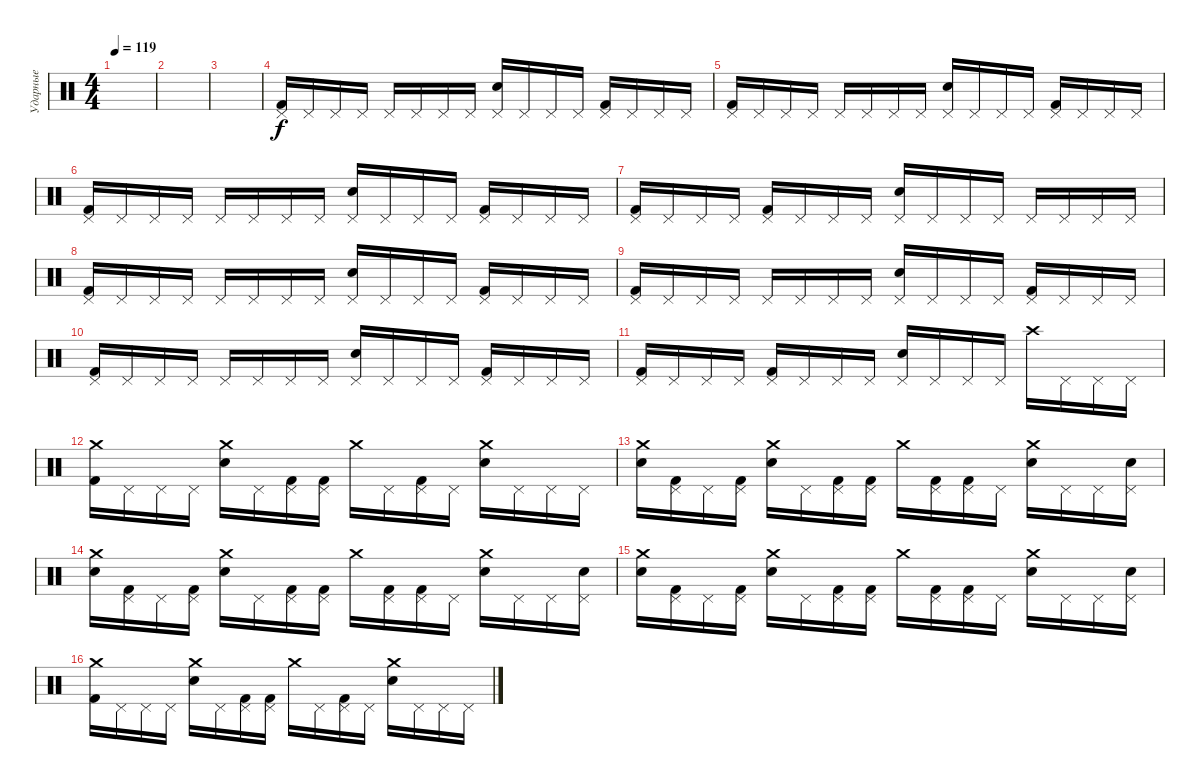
\track ("Ударные" "Ударные") {instrument percussion}
\staff {score}
\articulation defaults
\ts (4 4)
\tempo 119
\clef neutral
\ks c
|
|
|
("Pedal Hi-Hat (hit)" "Kick (hit) 2").16 "Pedal Hi-Hat (hit)".16 "Pedal Hi-Hat (hit)".16 "Pedal Hi-Hat (hit)".16 "Pedal Hi-Hat (hit)".16 "Pedal Hi-Hat (hit)".16 "Pedal Hi-Hat (hit)".16 "Pedal Hi-Hat (hit)".16 ("Pedal Hi-Hat (hit)" "Electric Snare (hit)").16 "Pedal Hi-Hat (hit)".16 "Pedal Hi-Hat (hit)".16 "Pedal Hi-Hat (hit)".16 ("Pedal Hi-Hat (hit)" "Kick (hit) 2").16 "Pedal Hi-Hat (hit)".16 "Pedal Hi-Hat (hit)".16 "Pedal Hi-Hat (hit)".16 |
("Pedal Hi-Hat (hit)" "Kick (hit) 2").16 "Pedal Hi-Hat (hit)".16 "Pedal Hi-Hat (hit)".16 "Pedal Hi-Hat (hit)".16 "Pedal Hi-Hat (hit)".16 "Pedal Hi-Hat (hit)".16 "Pedal Hi-Hat (hit)".16 "Pedal Hi-Hat (hit)".16 ("Pedal Hi-Hat (hit)" "Electric Snare (hit)").16 "Pedal Hi-Hat (hit)".16 "Pedal Hi-Hat (hit)".16 "Pedal Hi-Hat (hit)".16 ("Pedal Hi-Hat (hit)" "Kick (hit) 2").16 "Pedal Hi-Hat (hit)".16 "Pedal Hi-Hat (hit)".16 "Pedal Hi-Hat (hit)".16 |
("Pedal Hi-Hat (hit)" "Kick (hit) 2").16 "Pedal Hi-Hat (hit)".16 "Pedal Hi-Hat (hit)".16 "Pedal Hi-Hat (hit)".16 "Pedal Hi-Hat (hit)".16 "Pedal Hi-Hat (hit)".16 "Pedal Hi-Hat (hit)".16 "Pedal Hi-Hat (hit)".16 ("Pedal Hi-Hat (hit)" "Electric Snare (hit)").16 "Pedal Hi-Hat (hit)".16 "Pedal Hi-Hat (hit)".16 "Pedal Hi-Hat (hit)".16 ("Pedal Hi-Hat (hit)" "Kick (hit) 2").16 "Pedal Hi-Hat (hit)".16 "Pedal Hi-Hat (hit)".16 "Pedal Hi-Hat (hit)".16 |
("Pedal Hi-Hat (hit)" "Kick (hit) 2").16 "Pedal Hi-Hat (hit)".16 "Pedal Hi-Hat (hit)".16 "Pedal Hi-Hat (hit)".16 ("Pedal Hi-Hat (hit)" "Kick (hit) 2").16 "Pedal Hi-Hat (hit)".16 "Pedal Hi-Hat (hit)".16 "Pedal Hi-Hat (hit)".16 ("Pedal Hi-Hat (hit)" "Electric Snare (hit)").16 "Pedal Hi-Hat (hit)".16 "Pedal Hi-Hat (hit)".16 "Pedal Hi-Hat (hit)".16 "Pedal Hi-Hat (hit)".16 "Pedal Hi-Hat (hit)".16 "Pedal Hi-Hat (hit)".16 "Pedal Hi-Hat (hit)".16 |
("Pedal Hi-Hat (hit)" "Kick (hit) 2").16 "Pedal Hi-Hat (hit)".16 "Pedal Hi-Hat (hit)".16 "Pedal Hi-Hat (hit)".16 "Pedal Hi-Hat (hit)".16 "Pedal Hi-Hat (hit)".16 "Pedal Hi-Hat (hit)".16 "Pedal Hi-Hat (hit)".16 ("Pedal Hi-Hat (hit)" "Electric Snare (hit)").16 "Pedal Hi-Hat (hit)".16 "Pedal Hi-Hat (hit)".16 "Pedal Hi-Hat (hit)".16 ("Pedal Hi-Hat (hit)" "Kick (hit) 2").16 "Pedal Hi-Hat (hit)".16 "Pedal Hi-Hat (hit)".16 "Pedal Hi-Hat (hit)".16 |
("Pedal Hi-Hat (hit)" "Kick (hit) 2").16 "Pedal Hi-Hat (hit)".16 "Pedal Hi-Hat (hit)".16 "Pedal Hi-Hat (hit)".16 "Pedal Hi-Hat (hit)".16 "Pedal Hi-Hat (hit)".16 "Pedal Hi-Hat (hit)".16 "Pedal Hi-Hat (hit)".16 ("Pedal Hi-Hat (hit)" "Electric Snare (hit)").16 "Pedal Hi-Hat (hit)".16 "Pedal Hi-Hat (hit)".16 "Pedal Hi-Hat (hit)".16 ("Pedal Hi-Hat (hit)" "Kick (hit) 2").16 "Pedal Hi-Hat (hit)".16 "Pedal Hi-Hat (hit)".16 "Pedal Hi-Hat (hit)".16 |
("Pedal Hi-Hat (hit)" "Kick (hit) 2").16 "Pedal Hi-Hat (hit)".16 "Pedal Hi-Hat (hit)".16 "Pedal Hi-Hat (hit)".16 "Pedal Hi-Hat (hit)".16 "Pedal Hi-Hat (hit)".16 "Pedal Hi-Hat (hit)".16 "Pedal Hi-Hat (hit)".16 ("Pedal Hi-Hat (hit)" "Electric Snare (hit)").16 "Pedal Hi-Hat (hit)".16 "Pedal Hi-Hat (hit)".16 "Pedal Hi-Hat (hit)".16 ("Pedal Hi-Hat (hit)" "Kick (hit) 2").16 "Pedal Hi-Hat (hit)".16 "Pedal Hi-Hat (hit)".16 "Pedal Hi-Hat (hit)".16 |
("Pedal Hi-Hat (hit)" "Kick (hit) 2").16 "Pedal Hi-Hat (hit)".16 "Pedal Hi-Hat (hit)".16 "Pedal Hi-Hat (hit)".16 ("Pedal Hi-Hat (hit)" "Kick (hit) 2").16 "Pedal Hi-Hat (hit)".16 "Pedal Hi-Hat (hit)".16 "Pedal Hi-Hat (hit)".16 ("Pedal Hi-Hat (hit)" "Electric Snare (hit)").16 "Pedal Hi-Hat (hit)".16 "Pedal Hi-Hat (hit)".16 "Pedal Hi-Hat (hit)".16 "Crash high (hit)".16 "Pedal Hi-Hat (hit)".16 "Pedal Hi-Hat (hit)".16 "Pedal Hi-Hat (hit)".16 |
("Crash medium (hit)" "Kick (hit) 2").16 "Pedal Hi-Hat (hit)".16 "Pedal Hi-Hat (hit)".16 "Pedal Hi-Hat (hit)".16 ("Crash medium (hit)" "Electric Snare (hit)").16 "Pedal Hi-Hat (hit)".16 ("Pedal Hi-Hat (hit)" "Kick (hit) 2").16 ("Pedal Hi-Hat (hit)" "Kick (hit) 2").16 "Crash medium (hit)".16 "Pedal Hi-Hat (hit)".16 ("Pedal Hi-Hat (hit)" "Kick (hit) 2").16 "Pedal Hi-Hat (hit)".16 ("Crash medium (hit)" "Electric Snare (hit)").16 "Pedal Hi-Hat (hit)".16 "Pedal Hi-Hat (hit)".16 "Pedal Hi-Hat (hit)".16 |
("Crash medium (hit)" "Electric Snare (hit)").16 ("Pedal Hi-Hat (hit)" "Kick (hit) 2").16 "Pedal Hi-Hat (hit)".16 ("Pedal Hi-Hat (hit)" "Kick (hit) 2").16 ("Crash medium (hit)" "Electric Snare (hit)").16 "Pedal Hi-Hat (hit)".16 ("Pedal Hi-Hat (hit)" "Kick (hit) 2").16 ("Pedal Hi-Hat (hit)" "Kick (hit) 2").16 "Crash medium (hit)".16 ("Pedal Hi-Hat (hit)" "Kick (hit) 2").16 ("Pedal Hi-Hat (hit)" "Kick (hit) 2").16 "Pedal Hi-Hat (hit)".16 ("Crash medium (hit)" "Electric Snare (hit)").16 "Pedal Hi-Hat (hit)".16 "Pedal Hi-Hat (hit)".16 ("Pedal Hi-Hat (hit)" "Electric Snare (hit)").16 |
("Crash medium (hit)" "Electric Snare (hit)").16 ("Pedal Hi-Hat (hit)" "Kick (hit) 2").16 "Pedal Hi-Hat (hit)".16 ("Pedal Hi-Hat (hit)" "Kick (hit) 2").16 ("Crash medium (hit)" "Electric Snare (hit)").16 "Pedal Hi-Hat (hit)".16 ("Pedal Hi-Hat (hit)" "Kick (hit) 2").16 ("Pedal Hi-Hat (hit)" "Kick (hit) 2").16 "Crash medium (hit)".16 ("Pedal Hi-Hat (hit)" "Kick (hit) 2").16 ("Pedal Hi-Hat (hit)" "Kick (hit) 2").16 "Pedal Hi-Hat (hit)".16 ("Crash medium (hit)" "Electric Snare (hit)").16 "Pedal Hi-Hat (hit)".16 "Pedal Hi-Hat (hit)".16 ("Pedal Hi-Hat (hit)" "Electric Snare (hit)").16 |
("Crash medium (hit)" "Electric Snare (hit)").16 ("Pedal Hi-Hat (hit)" "Kick (hit) 2").16 "Pedal Hi-Hat (hit)".16 ("Pedal Hi-Hat (hit)" "Kick (hit) 2").16 ("Crash medium (hit)" "Electric Snare (hit)").16 "Pedal Hi-Hat (hit)".16 ("Pedal Hi-Hat (hit)" "Kick (hit) 2").16 ("Pedal Hi-Hat (hit)" "Kick (hit) 2").16 "Crash medium (hit)".16 ("Pedal Hi-Hat (hit)" "Kick (hit) 2").16 ("Pedal Hi-Hat (hit)" "Kick (hit) 2").16 "Pedal Hi-Hat (hit)".16 ("Crash medium (hit)" "Electric Snare (hit)").16 "Pedal Hi-Hat (hit)".16 "Pedal Hi-Hat (hit)".16 ("Pedal Hi-Hat (hit)" "Electric Snare (hit)").16 |
("Crash medium (hit)" "Kick (hit) 2").16 "Pedal Hi-Hat (hit)".16 "Pedal Hi-Hat (hit)".16 "Pedal Hi-Hat (hit)".16 ("Crash medium (hit)" "Electric Snare (hit)").16 "Pedal Hi-Hat (hit)".16 ("Pedal Hi-Hat (hit)" "Kick (hit) 2").16 ("Pedal Hi-Hat (hit)" "Kick (hit) 2").16 "Crash medium (hit)".16 "Pedal Hi-Hat (hit)".16 ("Pedal Hi-Hat (hit)" "Kick (hit) 2").16 "Pedal Hi-Hat (hit)".16 ("Crash medium (hit)" "Electric Snare (hit)").16 "Pedal Hi-Hat (hit)".16 "Pedal Hi-Hat (hit)".16 "Pedal Hi-Hat (hit)".16
